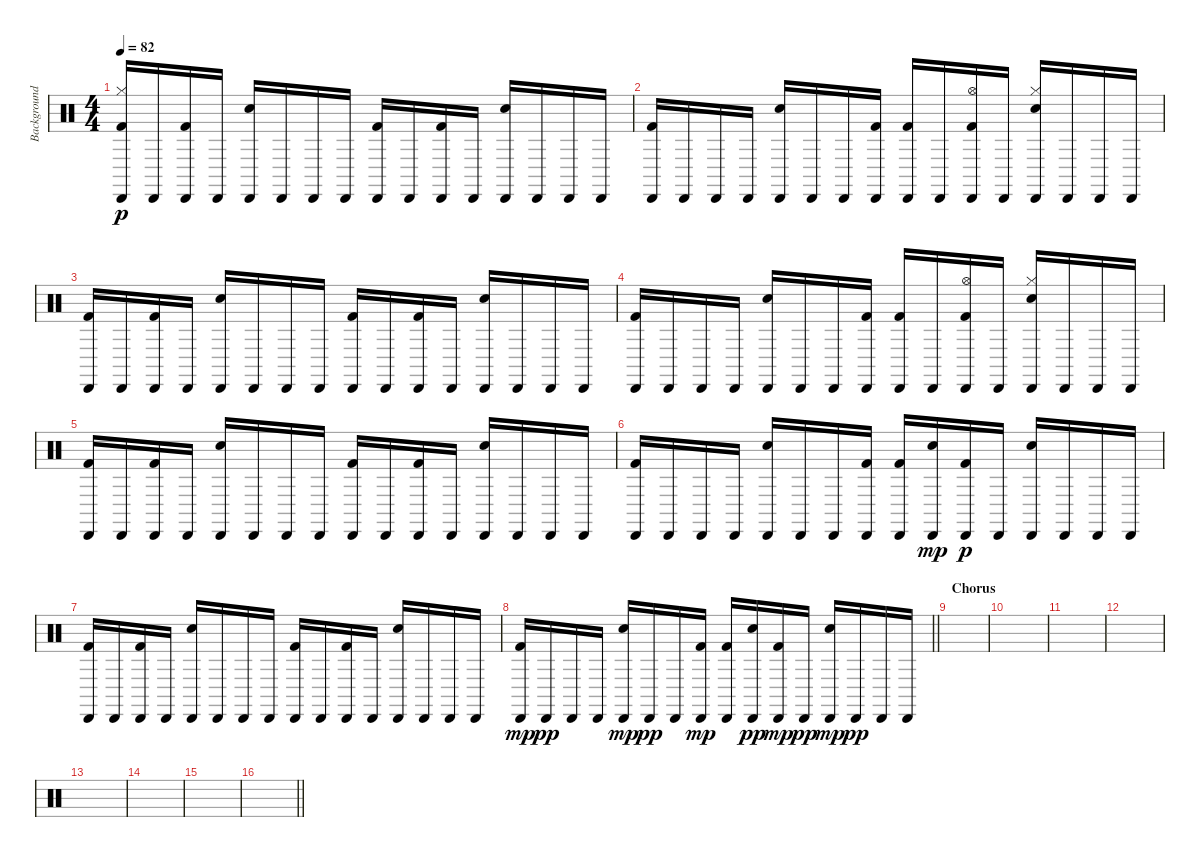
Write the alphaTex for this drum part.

\track ("Background Drums" "Background") {instrument percussion}
\staff {score}
\articulation defaults
\ts (4 4)
\tempo 82
\clef neutral
\ks c
("Hi-Hat (closed)" "Cabasa (hit)" "Kick (hit) 2").16{dy p} "Cabasa (hit)".16 ("Cabasa (hit)" "Kick (hit) 2").16 "Cabasa (hit)".16 ("Cabasa (hit)" "Snare (hit) 2").16 "Cabasa (hit)".16 "Cabasa (hit)".16 "Cabasa (hit)".16 ("Cabasa (hit)" "Kick (hit) 2").16 "Cabasa (hit)".16 ("Cabasa (hit)" "Kick (hit) 2").16 "Cabasa (hit)".16 ("Cabasa (hit)" "Snare (hit) 2").16 "Cabasa (hit)".16 "Cabasa (hit)".16 "Cabasa (hit)".16 |
("Cabasa (hit)" "Kick (hit) 2").16 "Cabasa (hit)".16 "Cabasa (hit)".16 "Cabasa (hit)".16 ("Cabasa (hit)" "Snare (hit) 2").16 "Cabasa (hit)".16 "Cabasa (hit)".16 ("Cabasa (hit)" "Kick (hit) 2").16 ("Cabasa (hit)" "Kick (hit) 2").16 "Cabasa (hit)".16 ("Hi-Hat (open)" "Cabasa (hit)" "Kick (hit) 2").16 "Cabasa (hit)".16 ("Hi-Hat (closed)" "Cabasa (hit)" "Snare (hit) 2").16 "Cabasa (hit)".16 "Cabasa (hit)".16 "Cabasa (hit)".16 |
("Cabasa (hit)" "Kick (hit) 2").16 "Cabasa (hit)".16 ("Cabasa (hit)" "Kick (hit) 2").16 "Cabasa (hit)".16 ("Cabasa (hit)" "Snare (hit) 2").16 "Cabasa (hit)".16 "Cabasa (hit)".16 "Cabasa (hit)".16 ("Cabasa (hit)" "Kick (hit) 2").16 "Cabasa (hit)".16 ("Cabasa (hit)" "Kick (hit) 2").16 "Cabasa (hit)".16 ("Cabasa (hit)" "Snare (hit) 2").16 "Cabasa (hit)".16 "Cabasa (hit)".16 "Cabasa (hit)".16 |
("Cabasa (hit)" "Kick (hit) 2").16 "Cabasa (hit)".16 "Cabasa (hit)".16 "Cabasa (hit)".16 ("Cabasa (hit)" "Snare (hit) 2").16 "Cabasa (hit)".16 "Cabasa (hit)".16 ("Cabasa (hit)" "Kick (hit) 2").16 ("Cabasa (hit)" "Kick (hit) 2").16 "Cabasa (hit)".16 ("Hi-Hat (open)" "Cabasa (hit)" "Kick (hit) 2").16 "Cabasa (hit)".16 ("Hi-Hat (closed)" "Cabasa (hit)" "Snare (hit) 2").16 "Cabasa (hit)".16 "Cabasa (hit)".16 "Cabasa (hit)".16 |
("Cabasa (hit)" "Kick (hit) 2").16 "Cabasa (hit)".16 ("Cabasa (hit)" "Kick (hit) 2").16 "Cabasa (hit)".16 ("Cabasa (hit)" "Snare (hit) 2").16 "Cabasa (hit)".16 "Cabasa (hit)".16 "Cabasa (hit)".16 ("Cabasa (hit)" "Kick (hit) 2").16 "Cabasa (hit)".16 ("Cabasa (hit)" "Kick (hit) 2").16 "Cabasa (hit)".16 ("Cabasa (hit)" "Snare (hit) 2").16 "Cabasa (hit)".16 "Cabasa (hit)".16 "Cabasa (hit)".16 |
("Cabasa (hit)" "Kick (hit) 2").16 "Cabasa (hit)".16 "Cabasa (hit)".16 "Cabasa (hit)".16 ("Cabasa (hit)" "Snare (hit) 2").16 "Cabasa (hit)".16 "Cabasa (hit)".16 ("Cabasa (hit)" "Kick (hit) 2").16 ("Cabasa (hit)" "Kick (hit) 2").16 ("Cabasa (hit)" "Electric Snare (hit)").16{dy mp} ("Cabasa (hit)" "Kick (hit) 2").16{dy p} "Cabasa (hit)".16 ("Cabasa (hit)" "Snare (hit) 2").16 "Cabasa (hit)".16 "Cabasa (hit)".16 "Cabasa (hit)".16 |
("Cabasa (hit)" "Kick (hit) 2").16 "Cabasa (hit)".16 ("Cabasa (hit)" "Kick (hit) 2").16 "Cabasa (hit)".16 ("Cabasa (hit)" "Snare (hit) 2").16 "Cabasa (hit)".16 "Cabasa (hit)".16 "Cabasa (hit)".16 ("Cabasa (hit)" "Kick (hit) 2").16 "Cabasa (hit)".16 ("Cabasa (hit)" "Kick (hit) 2").16 "Cabasa (hit)".16 ("Cabasa (hit)" "Snare (hit) 2").16 "Cabasa (hit)".16 "Cabasa (hit)".16 "Cabasa (hit)".16 |
\barLineRight lightlight
("Cabasa (hit)" "Kick (hit) 2").16{dy mp} "Cabasa (hit)".16{dy pp} "Cabasa (hit)".16 "Cabasa (hit)".16 ("Cabasa (hit)" "Snare (hit) 2").16{dy mp} "Cabasa (hit)".16{dy pp} "Cabasa (hit)".16 ("Cabasa (hit)" "Kick (hit) 2").16{dy mp} ("Cabasa (hit)" "Kick (hit) 2").16 ("Cabasa (hit)" "Electric Snare (hit)").16{dy pp} ("Cabasa (hit)" "Kick (hit) 2").16{dy mp} "Cabasa (hit)".16{dy pp} ("Cabasa (hit)" "Snare (hit) 2").16{dy mp} "Cabasa (hit)".16{dy pp} "Cabasa (hit)".16 "Cabasa (hit)".16 |
\section ("" "Chorus")
|
|
|
|
|
|
|
\barLineRight lightlight
